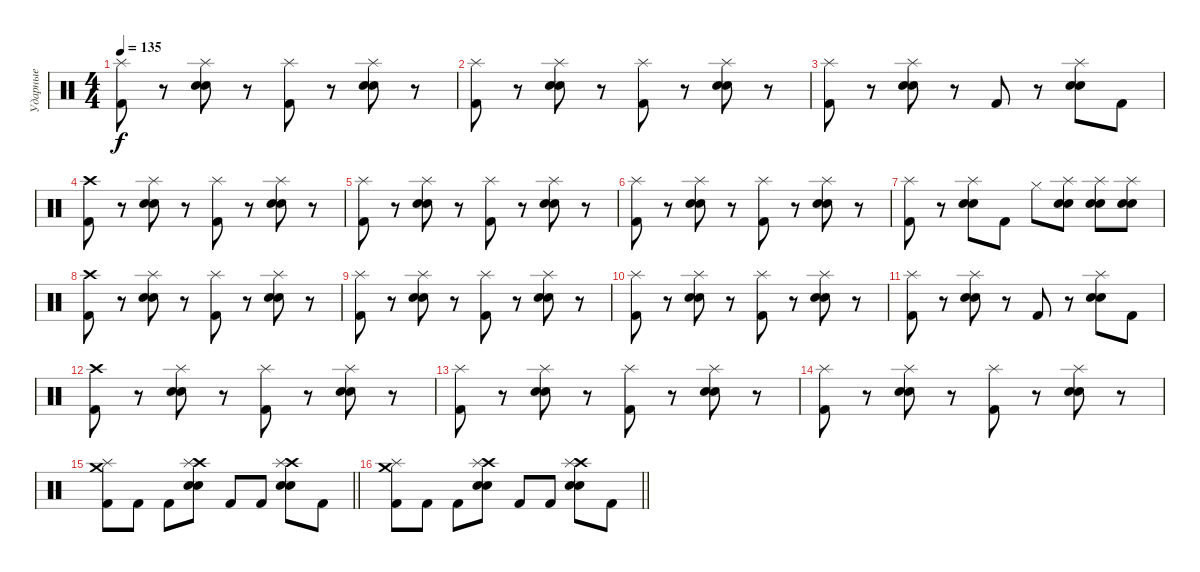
\track ("Ударные" "Ударные") {instrument percussion}
\staff {score}
\articulation defaults
\ts (4 4)
\tempo 135
\clef neutral
\ks c
("Splash (hit)" "Kick (hit) 2").8{dy f} r.8 ("Splash (hit)" "Electric Snare (hit)" "Snare (hit) 2").8 r.8 ("Splash (hit)" "Kick (hit) 2").8 r.8 ("Splash (hit)" "Electric Snare (hit)" "Snare (hit) 2").8 r.8 |
("Splash (hit)" "Kick (hit) 2").8 r.8 ("Splash (hit)" "Electric Snare (hit)" "Snare (hit) 2").8 r.8 ("Splash (hit)" "Kick (hit) 2").8 r.8 ("Splash (hit)" "Electric Snare (hit)" "Snare (hit) 2").8 r.8 |
("Splash (hit)" "Kick (hit) 2").8 r.8 ("Splash (hit)" "Electric Snare (hit)" "Snare (hit) 2").8 r.8 "Kick (hit) 2".8 r.8 ("Splash (hit)" "Electric Snare (hit)" "Snare (hit) 2").8 "Kick (hit) 2".8 |
("Crash high (hit)" "Kick (hit) 2").8 r.8 ("Splash (hit)" "Electric Snare (hit)" "Snare (hit) 2").8 r.8 ("Splash (hit)" "Kick (hit) 2").8 r.8 ("Splash (hit)" "Electric Snare (hit)" "Snare (hit) 2").8 r.8 |
("Splash (hit)" "Kick (hit) 2").8 r.8 ("Splash (hit)" "Electric Snare (hit)" "Snare (hit) 2").8 r.8 ("Splash (hit)" "Kick (hit) 2").8 r.8 ("Splash (hit)" "Electric Snare (hit)" "Snare (hit) 2").8 r.8 |
("Splash (hit)" "Kick (hit) 2").8 r.8 ("Splash (hit)" "Electric Snare (hit)" "Snare (hit) 2").8 r.8 ("Splash (hit)" "Kick (hit) 2").8 r.8 ("Splash (hit)" "Electric Snare (hit)" "Snare (hit) 2").8 r.8 |
("Splash (hit)" "Kick (hit) 2").8 r.8 ("Splash (hit)" "Electric Snare (hit)" "Snare (hit) 2").8 "Kick (hit) 2".8 "Hi-Hat (closed)".8 ("Splash (hit)" "Electric Snare (hit)" "Snare (hit) 2").8 ("Splash (hit)" "Electric Snare (hit)" "Snare (hit) 2").8 ("Splash (hit)" "Electric Snare (hit)" "Snare (hit) 2").8 |
("Crash high (hit)" "Kick (hit) 2").8 r.8 ("Splash (hit)" "Electric Snare (hit)" "Snare (hit) 2").8 r.8 ("Splash (hit)" "Kick (hit) 2").8 r.8 ("Splash (hit)" "Electric Snare (hit)" "Snare (hit) 2").8 r.8 |
("Splash (hit)" "Kick (hit) 2").8 r.8 ("Splash (hit)" "Electric Snare (hit)" "Snare (hit) 2").8 r.8 ("Splash (hit)" "Kick (hit) 2").8 r.8 ("Splash (hit)" "Electric Snare (hit)" "Snare (hit) 2").8 r.8 |
("Splash (hit)" "Kick (hit) 2").8 r.8 ("Splash (hit)" "Electric Snare (hit)" "Snare (hit) 2").8 r.8 ("Splash (hit)" "Kick (hit) 2").8 r.8 ("Splash (hit)" "Electric Snare (hit)" "Snare (hit) 2").8 r.8 |
("Splash (hit)" "Kick (hit) 2").8 r.8 ("Splash (hit)" "Electric Snare (hit)" "Snare (hit) 2").8 r.8 "Kick (hit) 2".8 r.8 ("Splash (hit)" "Electric Snare (hit)" "Snare (hit) 2").8 "Kick (hit) 2".8 |
("Crash high (hit)" "Kick (hit) 2").8 r.8 ("Splash (hit)" "Electric Snare (hit)" "Snare (hit) 2").8 r.8 ("Splash (hit)" "Kick (hit) 2").8 r.8 ("Splash (hit)" "Electric Snare (hit)" "Snare (hit) 2").8 r.8 |
("Splash (hit)" "Kick (hit) 2").8 r.8 ("Splash (hit)" "Electric Snare (hit)" "Snare (hit) 2").8 r.8 ("Splash (hit)" "Kick (hit) 2").8 r.8 ("Splash (hit)" "Electric Snare (hit)" "Snare (hit) 2").8 r.8 |
("Splash (hit)" "Kick (hit) 2").8 r.8 ("Splash (hit)" "Electric Snare (hit)" "Snare (hit) 2").8 r.8 ("Splash (hit)" "Kick (hit) 2").8 r.8 ("Splash (hit)" "Electric Snare (hit)" "Snare (hit) 2").8 r.8 |
\barLineRight lightlight
("Crash medium (hit)" "Splash (hit)" "Kick (hit) 2").8 "Kick (hit) 2".8 "Kick (hit) 2".8 ("Crash high (hit)" "Splash (hit)" "Electric Snare (hit)" "Snare (hit) 2").8 "Kick (hit) 2".8 "Kick (hit) 2".8 ("Crash high (hit)" "Splash (hit)" "Electric Snare (hit)" "Snare (hit) 2").8 "Kick (hit) 2".8 |
\barLineRight lightlight
("Crash medium (hit)" "Splash (hit)" "Kick (hit) 2").8 "Kick (hit) 2".8 "Kick (hit) 2".8 ("Crash high (hit)" "Splash (hit)" "Electric Snare (hit)" "Snare (hit) 2").8 "Kick (hit) 2".8 "Kick (hit) 2".8 ("Crash high (hit)" "Splash (hit)" "Electric Snare (hit)" "Snare (hit) 2").8 "Kick (hit) 2".8
